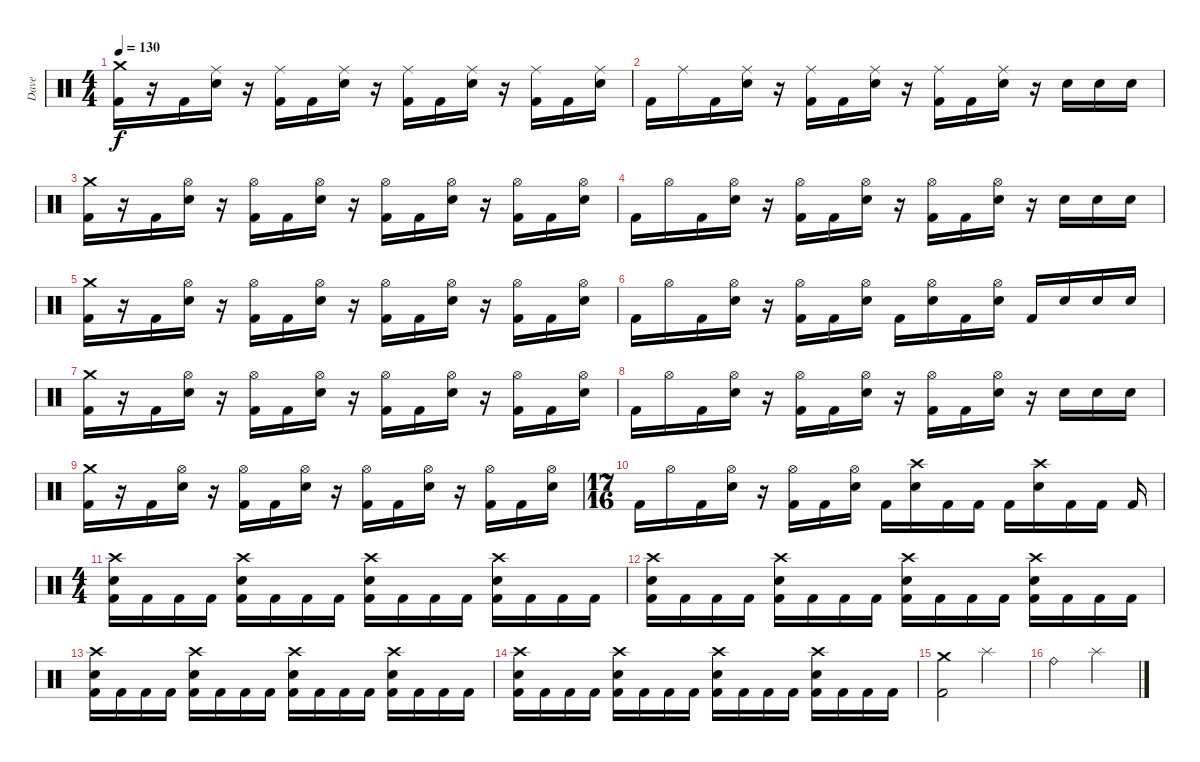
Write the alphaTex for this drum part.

\track ("Dave" "Dave") {instrument percussion}
\staff {score}
\articulation defaults
\ts (4 4)
\tempo 130
\clef neutral
\ks c
("Crash medium (hit)" "Kick (hit) 2").16{dy f} r.16 "Kick (hit) 2".16 ("Ride (middle)" "Electric Snare (hit)").16 r.16 ("Ride (middle)" "Kick (hit) 2").16 "Kick (hit) 2".16 ("Ride (middle)" "Electric Snare (hit)").16 r.16 ("Ride (middle)" "Kick (hit) 2").16 "Kick (hit) 2".16 ("Ride (middle)" "Electric Snare (hit)").16 r.16 ("Ride (middle)" "Kick (hit) 2").16 "Kick (hit) 2".16 ("Ride (middle)" "Electric Snare (hit)").16 |
"Kick (hit) 2".16 "Ride (middle)".16 "Kick (hit) 2".16 ("Ride (middle)" "Electric Snare (hit)").16 r.16 ("Ride (middle)" "Kick (hit) 2").16 "Kick (hit) 2".16 ("Ride (middle)" "Electric Snare (hit)").16 r.16 ("Ride (middle)" "Kick (hit) 2").16 "Kick (hit) 2".16 ("Ride (middle)" "Electric Snare (hit)").16 r.16 "Electric Snare (hit)".16 "Electric Snare (hit)".16 "Electric Snare (hit)".16 |
("Crash medium (hit)" "Kick (hit) 2").16 r.16 "Kick (hit) 2".16 ("Hi-Hat (open)" "Electric Snare (hit)").16 r.16 ("Hi-Hat (open)" "Kick (hit) 2").16 "Kick (hit) 2".16 ("Hi-Hat (open)" "Electric Snare (hit)").16 r.16 ("Hi-Hat (open)" "Kick (hit) 2").16 "Kick (hit) 2".16 ("Hi-Hat (open)" "Electric Snare (hit)").16 r.16 ("Hi-Hat (open)" "Kick (hit) 2").16 "Kick (hit) 2".16 ("Hi-Hat (open)" "Electric Snare (hit)").16 |
"Kick (hit) 2".16 "Hi-Hat (open)".16 "Kick (hit) 2".16 ("Hi-Hat (open)" "Electric Snare (hit)").16 r.16 ("Hi-Hat (open)" "Kick (hit) 2").16 "Kick (hit) 2".16 ("Hi-Hat (open)" "Electric Snare (hit)").16 r.16 ("Hi-Hat (open)" "Kick (hit) 2").16 "Kick (hit) 2".16 ("Hi-Hat (open)" "Electric Snare (hit)").16 r.16 "Electric Snare (hit)".16 "Electric Snare (hit)".16 "Electric Snare (hit)".16 |
("Crash medium (hit)" "Kick (hit) 2").16 r.16 "Kick (hit) 2".16 ("Hi-Hat (open)" "Electric Snare (hit)").16 r.16 ("Hi-Hat (open)" "Kick (hit) 2").16 "Kick (hit) 2".16 ("Hi-Hat (open)" "Electric Snare (hit)").16 r.16 ("Hi-Hat (open)" "Kick (hit) 2").16 "Kick (hit) 2".16 ("Hi-Hat (open)" "Electric Snare (hit)").16 r.16 ("Hi-Hat (open)" "Kick (hit) 2").16 "Kick (hit) 2".16 ("Hi-Hat (open)" "Electric Snare (hit)").16 |
"Kick (hit) 2".16 "Hi-Hat (open)".16 "Kick (hit) 2".16 ("Hi-Hat (open)" "Electric Snare (hit)").16 r.16 ("Hi-Hat (open)" "Kick (hit) 2").16 "Kick (hit) 2".16 ("Hi-Hat (open)" "Electric Snare (hit)").16 "Kick (hit) 2".16 ("Hi-Hat (open)" "Electric Snare (hit)").16 "Kick (hit) 2".16 ("Hi-Hat (open)" "Electric Snare (hit)").16 "Kick (hit) 2".16 "Electric Snare (hit)".16 "Electric Snare (hit)".16 "Electric Snare (hit)".16 |
("Crash medium (hit)" "Kick (hit) 2").16 r.16 "Kick (hit) 2".16 ("Hi-Hat (open)" "Electric Snare (hit)").16 r.16 ("Hi-Hat (open)" "Kick (hit) 2").16 "Kick (hit) 2".16 ("Hi-Hat (open)" "Electric Snare (hit)").16 r.16 ("Hi-Hat (open)" "Kick (hit) 2").16 "Kick (hit) 2".16 ("Hi-Hat (open)" "Electric Snare (hit)").16 r.16 ("Hi-Hat (open)" "Kick (hit) 2").16 "Kick (hit) 2".16 ("Hi-Hat (open)" "Electric Snare (hit)").16 |
"Kick (hit) 2".16 "Hi-Hat (open)".16 "Kick (hit) 2".16 ("Hi-Hat (open)" "Electric Snare (hit)").16 r.16 ("Hi-Hat (open)" "Kick (hit) 2").16 "Kick (hit) 2".16 ("Hi-Hat (open)" "Electric Snare (hit)").16 r.16 ("Hi-Hat (open)" "Kick (hit) 2").16 "Kick (hit) 2".16 ("Hi-Hat (open)" "Electric Snare (hit)").16 r.16 "Electric Snare (hit)".16 "Electric Snare (hit)".16 "Electric Snare (hit)".16 |
("Crash medium (hit)" "Kick (hit) 2").16 r.16 "Kick (hit) 2".16 ("Hi-Hat (open)" "Electric Snare (hit)").16 r.16 ("Hi-Hat (open)" "Kick (hit) 2").16 "Kick (hit) 2".16 ("Hi-Hat (open)" "Electric Snare (hit)").16 r.16 ("Hi-Hat (open)" "Kick (hit) 2").16 "Kick (hit) 2".16 ("Hi-Hat (open)" "Electric Snare (hit)").16 r.16 ("Hi-Hat (open)" "Kick (hit) 2").16 "Kick (hit) 2".16 ("Hi-Hat (open)" "Electric Snare (hit)").16 |
\ts (17 16)
"Kick (hit) 2".16 "Hi-Hat (open)".16 "Kick (hit) 2".16 ("Hi-Hat (open)" "Electric Snare (hit)").16 r.16 ("Hi-Hat (open)" "Kick (hit) 2").16 "Kick (hit) 2".16 ("Hi-Hat (open)" "Electric Snare (hit)").16 "Kick (hit) 2".16 ("Crash high (hit)" "Electric Snare (hit)").16 "Kick (hit) 2".16 "Kick (hit) 2".16 "Kick (hit) 2".16 ("Crash high (hit)" "Electric Snare (hit)").16 "Kick (hit) 2".16 "Kick (hit) 2".16 "Kick (hit) 2".16 |
\ts (4 4)
("Crash high (hit)" "Electric Snare (hit)" "Kick (hit) 2").16 "Kick (hit) 2".16 "Kick (hit) 2".16 "Kick (hit) 2".16 ("Crash high (hit)" "Electric Snare (hit)" "Kick (hit) 2").16 "Kick (hit) 2".16 "Kick (hit) 2".16 "Kick (hit) 2".16 ("Crash high (hit)" "Electric Snare (hit)" "Kick (hit) 2").16 "Kick (hit) 2".16 "Kick (hit) 2".16 "Kick (hit) 2".16 ("Crash high (hit)" "Electric Snare (hit)" "Kick (hit) 2").16 "Kick (hit) 2".16 "Kick (hit) 2".16 "Kick (hit) 2".16 |
("Crash high (hit)" "Electric Snare (hit)" "Kick (hit) 2").16 "Kick (hit) 2".16 "Kick (hit) 2".16 "Kick (hit) 2".16 ("Crash high (hit)" "Electric Snare (hit)" "Kick (hit) 2").16 "Kick (hit) 2".16 "Kick (hit) 2".16 "Kick (hit) 2".16 ("Crash high (hit)" "Electric Snare (hit)" "Kick (hit) 2").16 "Kick (hit) 2".16 "Kick (hit) 2".16 "Kick (hit) 2".16 ("Crash high (hit)" "Electric Snare (hit)" "Kick (hit) 2").16 "Kick (hit) 2".16 "Kick (hit) 2".16 "Kick (hit) 2".16 |
("Crash high (hit)" "Electric Snare (hit)" "Kick (hit) 2").16 "Kick (hit) 2".16 "Kick (hit) 2".16 "Kick (hit) 2".16 ("Crash high (hit)" "Electric Snare (hit)" "Kick (hit) 2").16 "Kick (hit) 2".16 "Kick (hit) 2".16 "Kick (hit) 2".16 ("Crash high (hit)" "Electric Snare (hit)" "Kick (hit) 2").16 "Kick (hit) 2".16 "Kick (hit) 2".16 "Kick (hit) 2".16 ("Crash high (hit)" "Electric Snare (hit)" "Kick (hit) 2").16 "Kick (hit) 2".16 "Kick (hit) 2".16 "Kick (hit) 2".16 |
("Crash high (hit)" "Electric Snare (hit)" "Kick (hit) 2").16 "Kick (hit) 2".16 "Kick (hit) 2".16 "Kick (hit) 2".16 ("Crash high (hit)" "Electric Snare (hit)" "Kick (hit) 2").16 "Kick (hit) 2".16 "Kick (hit) 2".16 "Kick (hit) 2".16 ("Crash high (hit)" "Electric Snare (hit)" "Kick (hit) 2").16 "Kick (hit) 2".16 "Kick (hit) 2".16 "Kick (hit) 2".16 ("Crash high (hit)" "Electric Snare (hit)" "Kick (hit) 2").16 "Kick (hit) 2".16 "Kick (hit) 2".16 "Kick (hit) 2".16 |
("Crash medium (hit)" "Kick (hit) 2").2 "Splash (hit)".2 |
"Ride (bell)".2 "Splash (hit)".2
